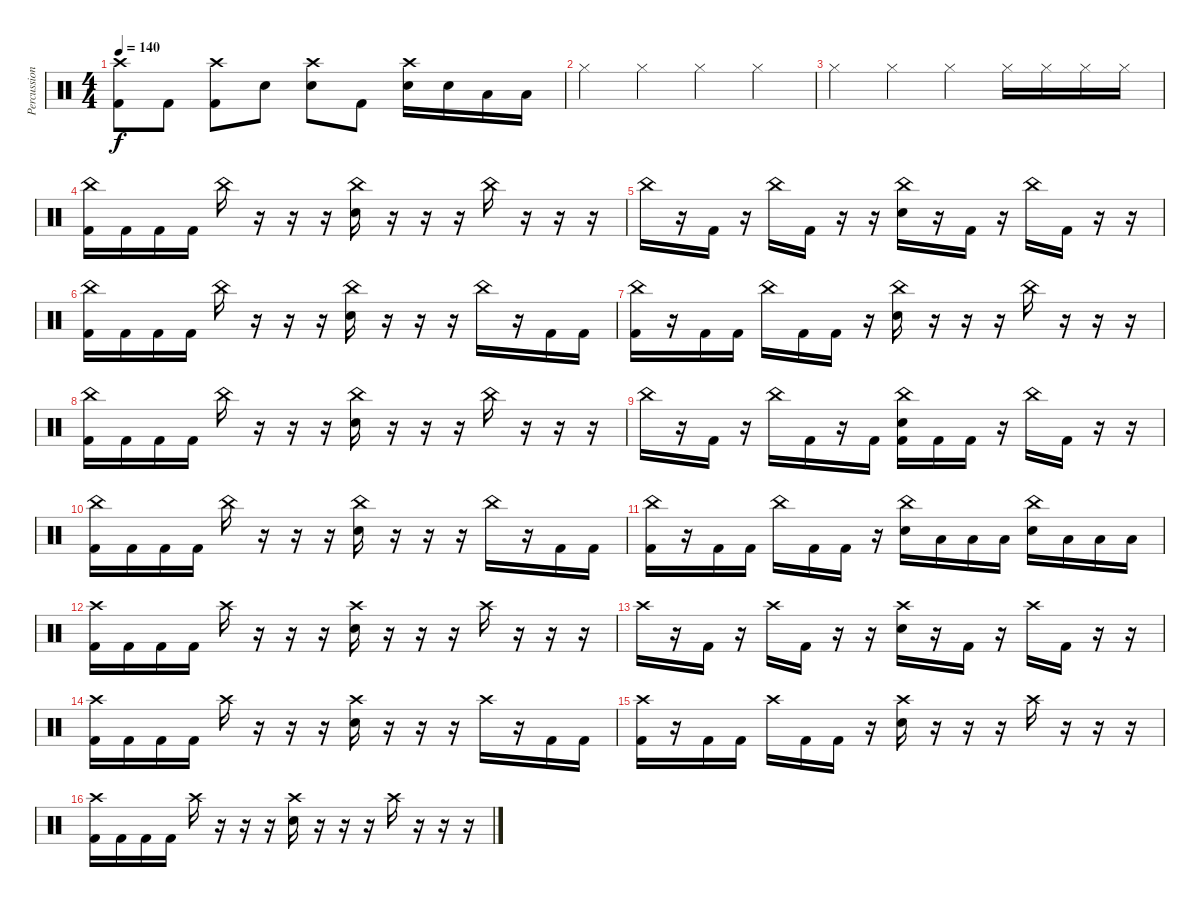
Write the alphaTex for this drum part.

\track ("Percussions" "Percussion") {instrument percussion}
\staff {score}
\articulation defaults
\ts (4 4)
\tempo 140
\clef neutral
\ks c
("Crash high (hit)" "Kick (hit) 2"{t}).8{dy f} "Kick (hit) 2".8 ("Crash high (hit)" "Kick (hit) 2").8 "Electric Snare (hit)".8 ("Crash high (hit)" "Electric Snare (hit)").8 "Kick (hit) 2".8 ("Crash high (hit)" "Electric Snare (hit)").16 "Electric Snare (hit)".16 "Low Tom (hit)".16 "Low Tom (hit)".16 |
"Hi-Hat (closed)".4 "Hi-Hat (closed)".4 "Hi-Hat (closed)".4 "Hi-Hat (closed)".4 |
"Hi-Hat (closed)".4 "Hi-Hat (closed)".4 "Hi-Hat (closed)".4 "Hi-Hat (closed)".16 "Hi-Hat (closed)".16 "Hi-Hat (closed)".16 "Hi-Hat (closed)".16 |
("China (hit)" "Kick (hit) 2").16 "Kick (hit) 2".16 "Kick (hit) 2".16 "Kick (hit) 2".16 "China (hit)".16 r.16 r.16 r.16 ("China (hit)" "Electric Snare (hit)").16 r.16 r.16 r.16 "China (hit)".16 r.16 r.16 r.16 |
"China (hit)".16 r.16 "Kick (hit) 2".16 r.16 "China (hit)".16 "Kick (hit) 2".16 r.16 r.16 ("China (hit)" "Electric Snare (hit)").16 r.16 "Kick (hit) 2".16 r.16 "China (hit)".16 "Kick (hit) 2".16 r.16 r.16 |
("China (hit)" "Kick (hit) 2").16 "Kick (hit) 2".16 "Kick (hit) 2".16 "Kick (hit) 2".16 "China (hit)".16 r.16 r.16 r.16 ("China (hit)" "Electric Snare (hit)").16 r.16 r.16 r.16 "China (hit)".16 r.16 "Kick (hit) 2".16 "Kick (hit) 2".16 |
("China (hit)" "Kick (hit) 2").16 r.16 "Kick (hit) 2".16 "Kick (hit) 2".16 "China (hit)".16 "Kick (hit) 2".16 "Kick (hit) 2".16 r.16 ("China (hit)" "Electric Snare (hit)").16 r.16 r.16 r.16 "China (hit)".16 r.16 r.16 r.16 |
("China (hit)" "Kick (hit) 2").16 "Kick (hit) 2".16 "Kick (hit) 2".16 "Kick (hit) 2".16 "China (hit)".16 r.16 r.16 r.16 ("China (hit)" "Electric Snare (hit)").16 r.16 r.16 r.16 "China (hit)".16 r.16 r.16 r.16 |
"China (hit)".16 r.16 "Kick (hit) 2".16 r.16 "China (hit)".16 "Kick (hit) 2".16 r.16 "Kick (hit) 2".16 ("China (hit)" "Electric Snare (hit)" "Kick (hit) 2").16 "Kick (hit) 2".16 "Kick (hit) 2".16 r.16 "China (hit)".16 "Kick (hit) 2".16 r.16 r.16 |
("China (hit)" "Kick (hit) 2").16 "Kick (hit) 2".16 "Kick (hit) 2".16 "Kick (hit) 2".16 "China (hit)".16 r.16 r.16 r.16 ("China (hit)" "Electric Snare (hit)").16 r.16 r.16 r.16 "China (hit)".16 r.16 "Kick (hit) 2".16 "Kick (hit) 2".16 |
("China (hit)" "Kick (hit) 2").16 r.16 "Kick (hit) 2".16 "Kick (hit) 2".16 "China (hit)".16 "Kick (hit) 2".16 "Kick (hit) 2".16 r.16 ("China (hit)" "Electric Snare (hit)").16 "Low Tom (hit)".16 "Low Tom (hit)".16 "Low Floor Tom (hit)".16 ("China (hit)" "Electric Snare (hit)").16 "Low Tom (hit)".16 "Low Tom (hit)".16 "Low Floor Tom (hit)".16 |
("Crash high (hit)" "Kick (hit) 2").16 "Kick (hit) 2".16 "Kick (hit) 2".16 "Kick (hit) 2".16 "Crash high (hit)".16 r.16 r.16 r.16 ("Crash high (hit)" "Electric Snare (hit)").16 r.16 r.16 r.16 "Crash high (hit)".16 r.16 r.16 r.16 |
"Crash high (hit)".16 r.16 "Kick (hit) 2".16 r.16 "Crash high (hit)".16 "Kick (hit) 2".16 r.16 r.16 ("Crash high (hit)" "Electric Snare (hit)").16 r.16 "Kick (hit) 2".16 r.16 "Crash high (hit)".16 "Kick (hit) 2".16 r.16 r.16 |
("Crash high (hit)" "Kick (hit) 2").16 "Kick (hit) 2".16 "Kick (hit) 2".16 "Kick (hit) 2".16 "Crash high (hit)".16 r.16 r.16 r.16 ("Crash high (hit)" "Electric Snare (hit)").16 r.16 r.16 r.16 "Crash high (hit)".16 r.16 "Kick (hit) 2".16 "Kick (hit) 2".16 |
("Crash high (hit)" "Kick (hit) 2").16 r.16 "Kick (hit) 2".16 "Kick (hit) 2".16 "Crash high (hit)".16 "Kick (hit) 2".16 "Kick (hit) 2".16 r.16 ("Crash high (hit)" "Electric Snare (hit)").16 r.16 r.16 r.16 "Crash high (hit)".16 r.16 r.16 r.16 |
("Crash high (hit)" "Kick (hit) 2").16 "Kick (hit) 2".16 "Kick (hit) 2".16 "Kick (hit) 2".16 "Crash high (hit)".16 r.16 r.16 r.16 ("Crash high (hit)" "Electric Snare (hit)").16 r.16 r.16 r.16 "Crash high (hit)".16 r.16 r.16 r.16
